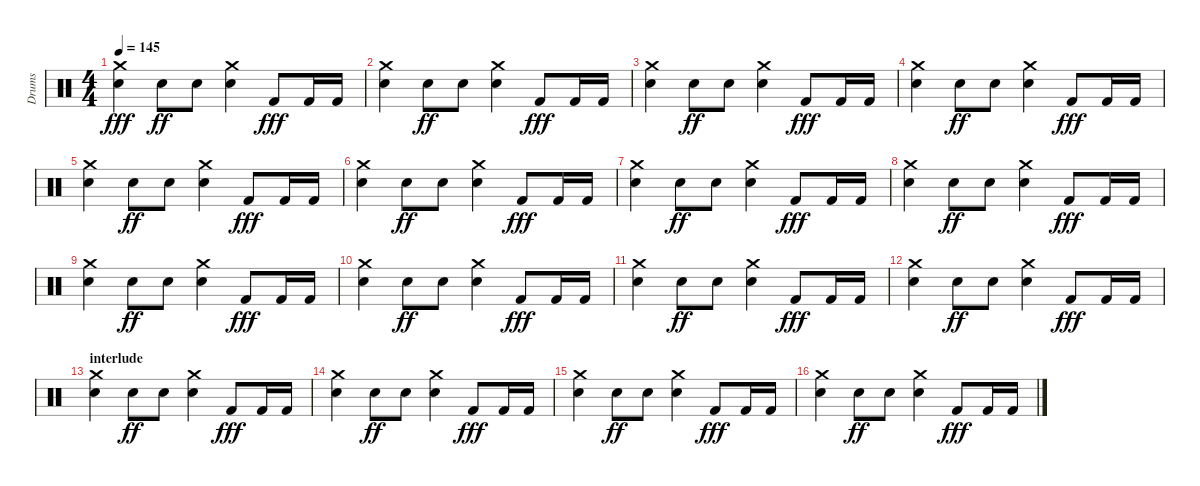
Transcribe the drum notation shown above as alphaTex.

\track ("Drums" "Drums") {instrument percussion}
\staff {score}
\articulation defaults
\ts (4 4)
\tempo 145
\clef neutral
\ks c
("Snare (hit) 2" "Crash medium (hit)").4{dy fff} "Snare (hit) 2".8{dy ff} "Snare (hit) 2".8 ("Crash medium (hit)" "Snare (hit) 2").4 "Kick (hit) 2".8{dy fff} "Kick (hit) 2".16 "Kick (hit) 2".16 |
("Snare (hit) 2" "Crash medium (hit)").4 "Snare (hit) 2".8{dy ff} "Snare (hit) 2".8 ("Crash medium (hit)" "Snare (hit) 2").4 "Kick (hit) 2".8{dy fff} "Kick (hit) 2".16 "Kick (hit) 2".16 |
("Snare (hit) 2" "Crash medium (hit)").4 "Snare (hit) 2".8{dy ff} "Snare (hit) 2".8 ("Crash medium (hit)" "Snare (hit) 2").4 "Kick (hit) 2".8{dy fff} "Kick (hit) 2".16 "Kick (hit) 2".16 |
("Snare (hit) 2" "Crash medium (hit)").4 "Snare (hit) 2".8{dy ff} "Snare (hit) 2".8 ("Crash medium (hit)" "Snare (hit) 2").4 "Kick (hit) 2".8{dy fff} "Kick (hit) 2".16 "Kick (hit) 2".16 |
("Snare (hit) 2" "Crash medium (hit)").4 "Snare (hit) 2".8{dy ff} "Snare (hit) 2".8 ("Crash medium (hit)" "Snare (hit) 2").4 "Kick (hit) 2".8{dy fff} "Kick (hit) 2".16 "Kick (hit) 2".16 |
("Snare (hit) 2" "Crash medium (hit)").4 "Snare (hit) 2".8{dy ff} "Snare (hit) 2".8 ("Crash medium (hit)" "Snare (hit) 2").4 "Kick (hit) 2".8{dy fff} "Kick (hit) 2".16 "Kick (hit) 2".16 |
("Snare (hit) 2" "Crash medium (hit)").4 "Snare (hit) 2".8{dy ff} "Snare (hit) 2".8 ("Crash medium (hit)" "Snare (hit) 2").4 "Kick (hit) 2".8{dy fff} "Kick (hit) 2".16 "Kick (hit) 2".16 |
("Snare (hit) 2" "Crash medium (hit)").4 "Snare (hit) 2".8{dy ff} "Snare (hit) 2".8 ("Crash medium (hit)" "Snare (hit) 2").4 "Kick (hit) 2".8{dy fff} "Kick (hit) 2".16 "Kick (hit) 2".16 |
("Snare (hit) 2" "Crash medium (hit)").4 "Snare (hit) 2".8{dy ff} "Snare (hit) 2".8 ("Crash medium (hit)" "Snare (hit) 2").4 "Kick (hit) 2".8{dy fff} "Kick (hit) 2".16 "Kick (hit) 2".16 |
("Snare (hit) 2" "Crash medium (hit)").4 "Snare (hit) 2".8{dy ff} "Snare (hit) 2".8 ("Crash medium (hit)" "Snare (hit) 2").4 "Kick (hit) 2".8{dy fff} "Kick (hit) 2".16 "Kick (hit) 2".16 |
("Snare (hit) 2" "Crash medium (hit)").4 "Snare (hit) 2".8{dy ff} "Snare (hit) 2".8 ("Crash medium (hit)" "Snare (hit) 2").4 "Kick (hit) 2".8{dy fff} "Kick (hit) 2".16 "Kick (hit) 2".16 |
("Snare (hit) 2" "Crash medium (hit)").4 "Snare (hit) 2".8{dy ff} "Snare (hit) 2".8 ("Crash medium (hit)" "Snare (hit) 2").4 "Kick (hit) 2".8{dy fff} "Kick (hit) 2".16 "Kick (hit) 2".16 |
\section ("" "interlude")
("Snare (hit) 2" "Crash medium (hit)").4 "Snare (hit) 2".8{dy ff} "Snare (hit) 2".8 ("Crash medium (hit)" "Snare (hit) 2").4 "Kick (hit) 2".8{dy fff} "Kick (hit) 2".16 "Kick (hit) 2".16 |
("Snare (hit) 2" "Crash medium (hit)").4 "Snare (hit) 2".8{dy ff} "Snare (hit) 2".8 ("Crash medium (hit)" "Snare (hit) 2").4 "Kick (hit) 2".8{dy fff} "Kick (hit) 2".16 "Kick (hit) 2".16 |
("Snare (hit) 2" "Crash medium (hit)").4 "Snare (hit) 2".8{dy ff} "Snare (hit) 2".8 ("Crash medium (hit)" "Snare (hit) 2").4 "Kick (hit) 2".8{dy fff} "Kick (hit) 2".16 "Kick (hit) 2".16 |
("Snare (hit) 2" "Crash medium (hit)").4 "Snare (hit) 2".8{dy ff} "Snare (hit) 2".8 ("Crash medium (hit)" "Snare (hit) 2").4 "Kick (hit) 2".8{dy fff} "Kick (hit) 2".16 "Kick (hit) 2".16
